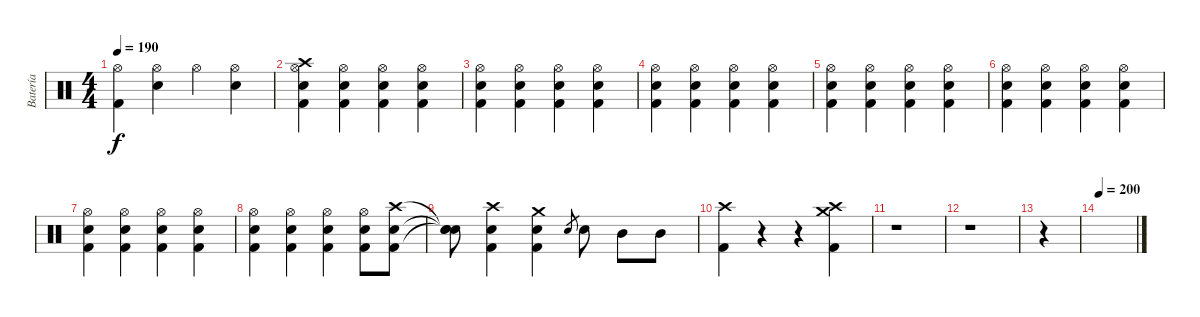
\track ("Batería" "Batería") {instrument percussion}
\staff {score}
\articulation defaults
\ts (4 4)
\tempo 190
\clef neutral
\ks c
("Hi-Hat (open)" "Kick (hit) 2").4{dy f} ("Hi-Hat (open)" "Electric Snare (hit)").4 "Hi-Hat (open)".4 ("Hi-Hat (open)" "Electric Snare (hit)").4 |
("Electric Snare (hit)" "Kick (hit) 2" "Hi-Hat (open)" "Crash high (hit)").4 ("Electric Snare (hit)" "Kick (hit) 2" "Hi-Hat (open)").4 ("Electric Snare (hit)" "Kick (hit) 2" "Hi-Hat (open)").4 ("Electric Snare (hit)" "Kick (hit) 2" "Hi-Hat (open)").4 |
("Electric Snare (hit)" "Kick (hit) 2" "Hi-Hat (open)").4 ("Electric Snare (hit)" "Kick (hit) 2" "Hi-Hat (open)").4 ("Electric Snare (hit)" "Kick (hit) 2" "Hi-Hat (open)").4 ("Electric Snare (hit)" "Kick (hit) 2" "Hi-Hat (open)").4 |
("Electric Snare (hit)" "Kick (hit) 2" "Hi-Hat (open)").4 ("Electric Snare (hit)" "Kick (hit) 2" "Hi-Hat (open)").4 ("Electric Snare (hit)" "Kick (hit) 2" "Hi-Hat (open)").4 ("Electric Snare (hit)" "Kick (hit) 2" "Hi-Hat (open)").4 |
("Electric Snare (hit)" "Kick (hit) 2" "Hi-Hat (open)").4 ("Electric Snare (hit)" "Kick (hit) 2" "Hi-Hat (open)").4 ("Electric Snare (hit)" "Kick (hit) 2" "Hi-Hat (open)").4 ("Electric Snare (hit)" "Kick (hit) 2" "Hi-Hat (open)").4 |
("Electric Snare (hit)" "Kick (hit) 2" "Hi-Hat (open)").4 ("Electric Snare (hit)" "Kick (hit) 2" "Hi-Hat (open)").4 ("Electric Snare (hit)" "Kick (hit) 2" "Hi-Hat (open)").4 ("Electric Snare (hit)" "Kick (hit) 2" "Hi-Hat (open)").4 |
("Electric Snare (hit)" "Kick (hit) 2" "Hi-Hat (open)").4 ("Electric Snare (hit)" "Kick (hit) 2" "Hi-Hat (open)").4 ("Electric Snare (hit)" "Kick (hit) 2" "Hi-Hat (open)").4 ("Electric Snare (hit)" "Kick (hit) 2" "Hi-Hat (open)").4 |
("Electric Snare (hit)" "Kick (hit) 2" "Hi-Hat (open)").4 ("Electric Snare (hit)" "Kick (hit) 2" "Hi-Hat (open)").4 ("Electric Snare (hit)" "Kick (hit) 2" "Hi-Hat (open)").4 ("Electric Snare (hit)" "Kick (hit) 2" "Hi-Hat (open)").8 ("Electric Snare (hit)" "Kick (hit) 2" "Crash high (hit)").8 |
("Snare (hit)"{t} "Snare (hit)"{t} "Snare (hit)"{t}).8 ("Electric Snare (hit)" "Kick (hit) 2" "Crash high (hit)").4 ("Electric Snare (hit)" "Kick (hit) 2" "Crash medium (hit)").4 "Electric Snare (hit)".8{gr} "Electric Snare (hit)".8 "Mid Tom (hit)".8 "Mid Tom (hit)".8 |
("Kick (hit) 2" "Crash high (hit)").4 r.4 r.4 ("Kick (hit) 2" "Crash medium (hit)" "Crash high (hit)").4 |
r.1 |
r.1 |
r.4 |
\tempo 200
